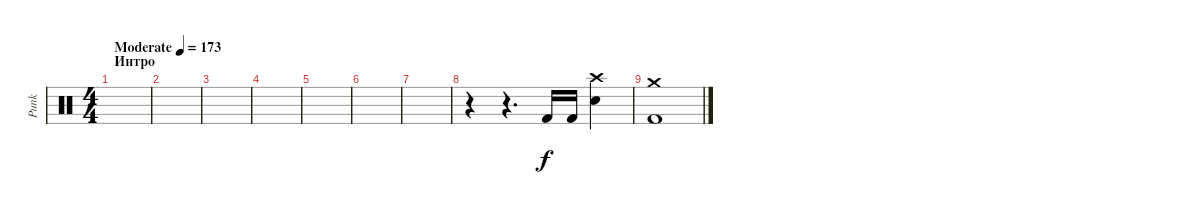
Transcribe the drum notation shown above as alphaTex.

\track ("Punk" "Punk") {instrument percussion}
\staff {score}
\articulation defaults
\ts (4 4)
\section ("" "Интро")
\tempo (173 "Moderate")
\clef neutral
\ks c
|
|
|
|
|
|
|
r.4 r.4{d} "Kick (hit) 2".16 "Kick (hit) 2".16 ("Crash high (hit)" "Electric Snare (hit)").4 |
("Crash medium (hit)" "Kick (hit) 2").1
